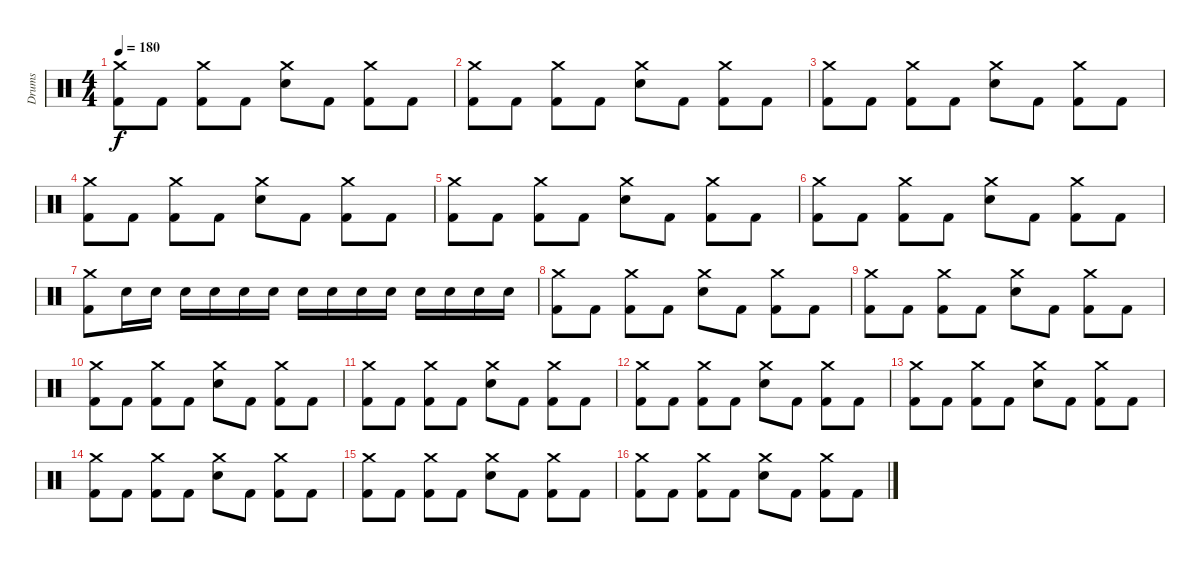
\track ("Drums" "Drums") {instrument percussion}
\staff {score}
\articulation defaults
\ts (4 4)
\tempo 180
\clef neutral
\ks c
("Crash medium (hit)" "Kick (hit) 2").8{dy f} "Kick (hit) 2".8 ("Crash medium (hit)" "Kick (hit) 2").8 "Kick (hit) 2".8 ("Crash medium (hit)" "Electric Snare (hit)").8 "Kick (hit) 2".8 ("Crash medium (hit)" "Kick (hit) 2").8 "Kick (hit) 2".8 |
("Crash medium (hit)" "Kick (hit) 2").8 "Kick (hit) 2".8 ("Crash medium (hit)" "Kick (hit) 2").8 "Kick (hit) 2".8 ("Crash medium (hit)" "Electric Snare (hit)").8 "Kick (hit) 2".8 ("Crash medium (hit)" "Kick (hit) 2").8 "Kick (hit) 2".8 |
("Crash medium (hit)" "Kick (hit) 2").8 "Kick (hit) 2".8 ("Crash medium (hit)" "Kick (hit) 2").8 "Kick (hit) 2".8 ("Crash medium (hit)" "Electric Snare (hit)").8 "Kick (hit) 2".8 ("Crash medium (hit)" "Kick (hit) 2").8 "Kick (hit) 2".8 |
("Crash medium (hit)" "Kick (hit) 2").8 "Kick (hit) 2".8 ("Crash medium (hit)" "Kick (hit) 2").8 "Kick (hit) 2".8 ("Crash medium (hit)" "Electric Snare (hit)").8 "Kick (hit) 2".8 ("Crash medium (hit)" "Kick (hit) 2").8 "Kick (hit) 2".8 |
("Crash medium (hit)" "Kick (hit) 2").8 "Kick (hit) 2".8 ("Crash medium (hit)" "Kick (hit) 2").8 "Kick (hit) 2".8 ("Crash medium (hit)" "Electric Snare (hit)").8 "Kick (hit) 2".8 ("Crash medium (hit)" "Kick (hit) 2").8 "Kick (hit) 2".8 |
("Crash medium (hit)" "Kick (hit) 2").8 "Kick (hit) 2".8 ("Crash medium (hit)" "Kick (hit) 2").8 "Kick (hit) 2".8 ("Crash medium (hit)" "Electric Snare (hit)").8 "Kick (hit) 2".8 ("Crash medium (hit)" "Kick (hit) 2").8 "Kick (hit) 2".8 |
("Crash medium (hit)" "Kick (hit) 2").8 "Electric Snare (hit)".16 "Electric Snare (hit)".16 "Electric Snare (hit)".16 "Electric Snare (hit)".16 "Electric Snare (hit)".16 "Electric Snare (hit)".16 "Electric Snare (hit)".16 "Electric Snare (hit)".16 "Electric Snare (hit)".16 "Electric Snare (hit)".16 "Electric Snare (hit)".16 "Electric Snare (hit)".16 "Electric Snare (hit)".16 "Electric Snare (hit)".16 |
("Crash medium (hit)" "Kick (hit) 2").8 "Kick (hit) 2".8 ("Crash medium (hit)" "Kick (hit) 2").8 "Kick (hit) 2".8 ("Crash medium (hit)" "Electric Snare (hit)").8 "Kick (hit) 2".8 ("Crash medium (hit)" "Kick (hit) 2").8 "Kick (hit) 2".8 |
("Crash medium (hit)" "Kick (hit) 2").8 "Kick (hit) 2".8 ("Crash medium (hit)" "Kick (hit) 2").8 "Kick (hit) 2".8 ("Crash medium (hit)" "Electric Snare (hit)").8 "Kick (hit) 2".8 ("Crash medium (hit)" "Kick (hit) 2").8 "Kick (hit) 2".8 |
("Crash medium (hit)" "Kick (hit) 2").8 "Kick (hit) 2".8 ("Crash medium (hit)" "Kick (hit) 2").8 "Kick (hit) 2".8 ("Crash medium (hit)" "Electric Snare (hit)").8 "Kick (hit) 2".8 ("Crash medium (hit)" "Kick (hit) 2").8 "Kick (hit) 2".8 |
("Crash medium (hit)" "Kick (hit) 2").8 "Kick (hit) 2".8 ("Crash medium (hit)" "Kick (hit) 2").8 "Kick (hit) 2".8 ("Crash medium (hit)" "Electric Snare (hit)").8 "Kick (hit) 2".8 ("Crash medium (hit)" "Kick (hit) 2").8 "Kick (hit) 2".8 |
("Crash medium (hit)" "Kick (hit) 2").8 "Kick (hit) 2".8 ("Crash medium (hit)" "Kick (hit) 2").8 "Kick (hit) 2".8 ("Crash medium (hit)" "Electric Snare (hit)").8 "Kick (hit) 2".8 ("Crash medium (hit)" "Kick (hit) 2").8 "Kick (hit) 2".8 |
("Crash medium (hit)" "Kick (hit) 2").8 "Kick (hit) 2".8 ("Crash medium (hit)" "Kick (hit) 2").8 "Kick (hit) 2".8 ("Crash medium (hit)" "Electric Snare (hit)").8 "Kick (hit) 2".8 ("Crash medium (hit)" "Kick (hit) 2").8 "Kick (hit) 2".8 |
("Crash medium (hit)" "Kick (hit) 2").8 "Kick (hit) 2".8 ("Crash medium (hit)" "Kick (hit) 2").8 "Kick (hit) 2".8 ("Crash medium (hit)" "Electric Snare (hit)").8 "Kick (hit) 2".8 ("Crash medium (hit)" "Kick (hit) 2").8 "Kick (hit) 2".8 |
("Crash medium (hit)" "Kick (hit) 2").8 "Kick (hit) 2".8 ("Crash medium (hit)" "Kick (hit) 2").8 "Kick (hit) 2".8 ("Crash medium (hit)" "Electric Snare (hit)").8 "Kick (hit) 2".8 ("Crash medium (hit)" "Kick (hit) 2").8 "Kick (hit) 2".8 |
("Crash medium (hit)" "Kick (hit) 2").8 "Kick (hit) 2".8 ("Crash medium (hit)" "Kick (hit) 2").8 "Kick (hit) 2".8 ("Crash medium (hit)" "Electric Snare (hit)").8 "Kick (hit) 2".8 ("Crash medium (hit)" "Kick (hit) 2").8 "Kick (hit) 2".8
